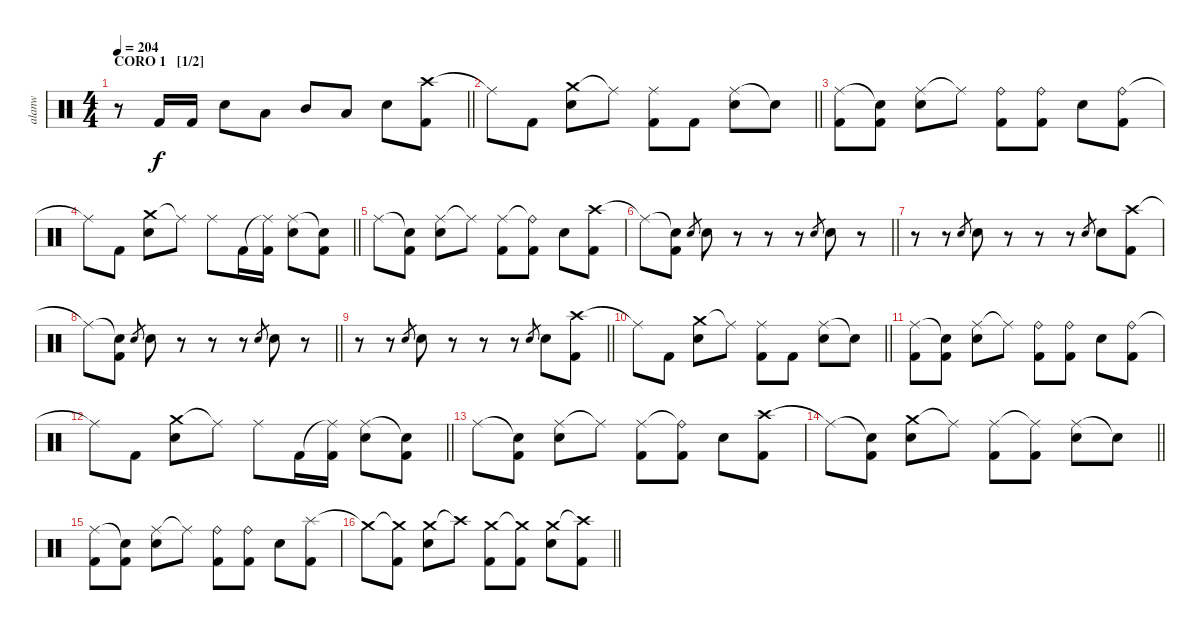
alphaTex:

\track ("alanw" "alanw") {instrument percussion}
\staff {score}
\articulation defaults
\ts (4 4)
\section ("" "CORO 1   [1/2]")
\tempo 204
\clef neutral
\barLineRight lightlight
\ks c
r.8{dy f} "Kick (hit) 2".16 "Kick (hit) 2".16 "Electric Snare (hit)".8 "Low Tom (hit)".8 "Mid Tom (hit)".8 "Low Tom (hit)".8 "Electric Snare (hit)".8 ("Crash high (hit)" "Kick (hit) 2").8 |
\barLineRight lightlight "Ride (middle)"{t}.8 "Kick (hit) 2".8
("Crash medium (hit)" "Electric Snare (hit)").8 "Ride (middle)"{t}.8 ("Ride (middle)" "Kick (hit) 2").8 "Kick (hit) 2".8 ("Ride (middle)" "Electric Snare (hit)").8 "Snare (hit)"{t}.8 |
("Ride (middle)" "Kick (hit) 2").8 ("Snare (hit)"{t} "Kick (hit) 2").8 ("Ride (middle)" "Electric Snare (hit)").8 "Ride (middle)"{t}.8 ("Ride (bell)" "Kick (hit) 2").8 ("Ride (bell)" "Kick (hit) 2").8 "Electric Snare (hit)".8 ("Ride (bell)" "Kick (hit) 2").8 |
\barLineRight lightlight "Ride (middle)"{t}.8 "Kick (hit) 2".8
("Crash medium (hit)" "Electric Snare (hit)").8 "Ride (middle)"{t}.8 "Ride (middle)".8 "Kick (hit) 2".16 ("Ride (middle)"{t} "Kick (hit) 2").16 ("Ride (middle)" "Electric Snare (hit)").8 ("Snare (hit)"{t} "Kick (hit) 2").8 |
"Ride (middle)".8 ("Snare (hit)"{t} "Kick (hit) 2").8 ("Ride (middle)" "Electric Snare (hit)").8 "Ride (middle)"{t}.8 ("Ride (middle)" "Kick (hit) 2").8 ("Ride (bell)"{t} "Kick (hit) 2").8 "Electric Snare (hit)".8 ("Crash high (hit)" "Kick (hit) 2").8 |
\barLineRight lightlight "Ride (middle)"{t}.8
("Snare (hit)"{t} "Kick (hit) 2").8 "Electric Snare (hit)".8{gr} "Electric Snare (hit)".8 r.8 r.8 r.8 "Electric Snare (hit)".8{gr} "Electric Snare (hit)".8 r.8 |
r.8 r.8 "Electric Snare (hit)".8{gr} "Electric Snare (hit)".8 r.8 r.8 r.8 "Electric Snare (hit)".8{gr} "Electric Snare (hit)".8 ("Crash high (hit)" "Kick (hit) 2").8 |
\barLineRight lightlight "Ride (middle)"{t}.8
("Snare (hit)"{t} "Kick (hit) 2").8 "Electric Snare (hit)".8{gr} "Electric Snare (hit)".8 r.8 r.8 r.8 "Electric Snare (hit)".8{gr} "Electric Snare (hit)".8 r.8 |
\section ("" "")
\barLineRight lightlight
r.8 r.8 "Electric Snare (hit)".8{gr} "Electric Snare (hit)".8 r.8 r.8 r.8 "Electric Snare (hit)".8{gr} "Electric Snare (hit)".8 ("Crash high (hit)" "Kick (hit) 2").8 |
\barLineRight lightlight "Ride (middle)"{t}.8 "Kick (hit) 2".8
("Crash medium (hit)" "Electric Snare (hit)").8 "Ride (middle)"{t}.8 ("Ride (middle)" "Kick (hit) 2").8 "Kick (hit) 2".8 ("Ride (middle)" "Electric Snare (hit)").8 "Snare (hit)"{t}.8 |
("Ride (middle)" "Kick (hit) 2").8 ("Snare (hit)"{t} "Kick (hit) 2").8 ("Ride (middle)" "Electric Snare (hit)").8 "Ride (middle)"{t}.8 ("Ride (bell)" "Kick (hit) 2").8 ("Ride (bell)" "Kick (hit) 2").8 "Electric Snare (hit)".8 ("Ride (bell)" "Kick (hit) 2").8 |
\barLineRight lightlight "Ride (middle)"{t}.8 "Kick (hit) 2".8
("Crash medium (hit)" "Electric Snare (hit)").8 "Ride (middle)"{t}.8 "Ride (middle)".8 "Kick (hit) 2".16 ("Ride (middle)"{t} "Kick (hit) 2").16 ("Ride (middle)" "Electric Snare (hit)").8 ("Snare (hit)"{t} "Kick (hit) 2").8 |
"Ride (middle)".8 ("Snare (hit)"{t} "Kick (hit) 2").8 ("Ride (middle)" "Electric Snare (hit)").8 "Ride (middle)"{t}.8 ("Ride (middle)" "Kick (hit) 2").8 ("Ride (bell)"{t} "Kick (hit) 2").8 "Electric Snare (hit)".8 ("Crash high (hit)" "Kick (hit) 2").8 |
\barLineRight lightlight "Ride (middle)"{t}.8
("Snare (hit)"{t} "Kick (hit) 2").8 ("Crash medium (hit)" "Electric Snare (hit)").8 "Ride (middle)"{t}.8 ("Ride (middle)" "Kick (hit) 2").8 ("Ride (middle)"{t} "Kick (hit) 2").8 ("Ride (middle)" "Electric Snare (hit)").8 "Snare (hit)"{t}.8 |
("Ride (middle)" "Kick (hit) 2").8 ("Snare (hit)"{t} "Kick (hit) 2").8 ("Ride (middle)" "Electric Snare (hit)").8 "Ride (middle)"{t}.8 ("Ride (bell)" "Kick (hit) 2").8 ("Ride (bell)" "Kick (hit) 2").8 "Electric Snare (hit)".8 ("Splash (hit)" "Kick (hit) 2").8 |
\barLineRight lightlight "Crash medium (hit)"{t}.8
("Crash medium (hit)"{t} "Kick (hit) 2").8 ("Crash medium (hit)" "Electric Snare (hit)").8 "Crash high (hit)"{t}.8 ("Crash medium (hit)" "Kick (hit) 2").8 ("Crash medium (hit)"{t} "Kick (hit) 2").8 ("Crash medium (hit)" "Electric Snare (hit)").8 ("Crash high (hit)"{t} "Kick (hit) 2").8
